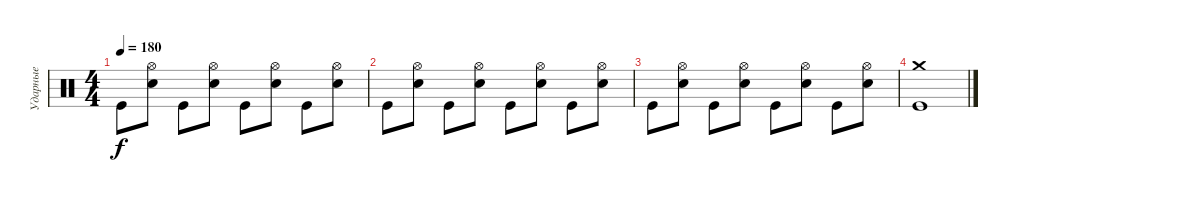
\track ("Ударные" "Ударные") {instrument percussion}
\staff {score}
\articulation defaults
\ts (4 4)
\tempo 180
\clef neutral
\ks c "Kick (hit)".8{dy f}
("Hi-Hat (open)" "Electric Snare (hit)").8 "Kick (hit)".8 ("Hi-Hat (open)" "Electric Snare (hit)").8 "Kick (hit)".8 ("Hi-Hat (open)" "Electric Snare (hit)").8 "Kick (hit)".8 ("Hi-Hat (open)" "Electric Snare (hit)").8 |
"Kick (hit)".8 ("Hi-Hat (open)" "Electric Snare (hit)").8 "Kick (hit)".8 ("Hi-Hat (open)" "Electric Snare (hit)").8 "Kick (hit)".8 ("Hi-Hat (open)" "Electric Snare (hit)").8 "Kick (hit)".8 ("Hi-Hat (open)" "Electric Snare (hit)").8 |
"Kick (hit)".8 ("Hi-Hat (open)" "Electric Snare (hit)").8 "Kick (hit)".8 ("Hi-Hat (open)" "Electric Snare (hit)").8 "Kick (hit)".8 ("Hi-Hat (open)" "Electric Snare (hit)").8 "Kick (hit)".8 ("Hi-Hat (open)" "Electric Snare (hit)").8 |
("Crash medium (hit)" "Kick (hit)").1
